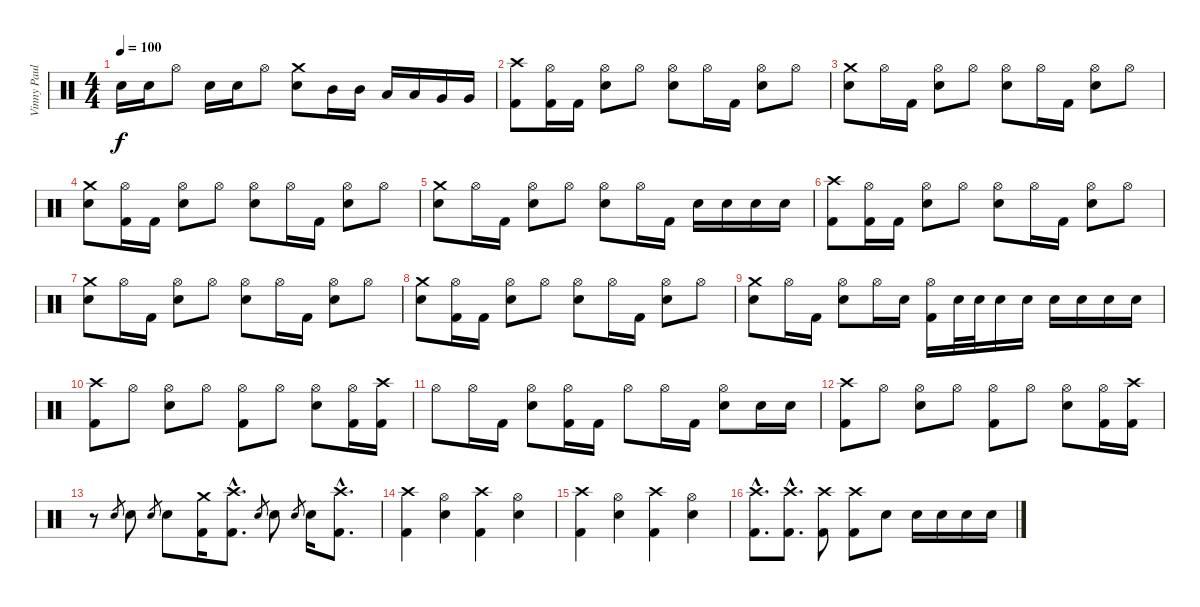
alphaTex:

\track ("Vinny Paul" "Vinny Paul") {instrument percussion}
\staff {score}
\articulation defaults
\ts (4 4)
\tempo 100
\clef neutral
\ks c "Snare (hit) 2".16{dy f} "Snare (hit) 2".16 "Hi-Hat (open)".8 "Snare (hit) 2".16 "Snare (hit) 2".16 "Hi-Hat (open)".8
("Crash medium (hit)" "Snare (hit) 2").8 "Mid Tom (hit)".16 "Mid Tom (hit)".16 "Low Tom (hit)".16 "Low Tom (hit)".16 "Very Low Tom (hit)".16 "Very Low Tom (hit)".16 |
("Crash high (hit)" "Kick (hit) 2").8 ("Hi-Hat (open)" "Kick (hit) 2").16 "Kick (hit) 2".16 ("Hi-Hat (open)" "Snare (hit) 2").8 "Hi-Hat (open)".8 ("Hi-Hat (open)" "Snare (hit) 2").8 "Hi-Hat (open)".16 "Kick (hit) 2".16 ("Hi-Hat (open)" "Snare (hit) 2").8 "Hi-Hat (open)".8 |
("Crash medium (hit)" "Snare (hit) 2").8 "Hi-Hat (open)".16 "Kick (hit) 2".16 ("Hi-Hat (open)" "Snare (hit) 2").8 "Hi-Hat (open)".8 ("Hi-Hat (open)" "Snare (hit) 2").8 "Hi-Hat (open)".16 "Kick (hit) 2".16 ("Hi-Hat (open)" "Snare (hit) 2").8 "Hi-Hat (open)".8 |
("Crash medium (hit)" "Snare (hit) 2").8 ("Hi-Hat (open)" "Kick (hit) 2").16 "Kick (hit) 2".16 ("Hi-Hat (open)" "Snare (hit) 2").8 "Hi-Hat (open)".8 ("Hi-Hat (open)" "Snare (hit) 2").8 "Hi-Hat (open)".16 "Kick (hit) 2".16 ("Hi-Hat (open)" "Snare (hit) 2").8 "Hi-Hat (open)".8 |
("Crash medium (hit)" "Snare (hit) 2").8 "Hi-Hat (open)".16 "Kick (hit) 2".16 ("Hi-Hat (open)" "Snare (hit) 2").8 "Hi-Hat (open)".8 ("Hi-Hat (open)" "Snare (hit) 2").8 "Hi-Hat (open)".16 "Kick (hit) 2".16 "Snare (hit) 2".16 "Snare (hit) 2".16 "Snare (hit) 2".16 "Snare (hit) 2".16 |
("Crash high (hit)" "Kick (hit) 2").8 ("Hi-Hat (open)" "Kick (hit) 2").16 "Kick (hit) 2".16 ("Hi-Hat (open)" "Snare (hit) 2").8 "Hi-Hat (open)".8 ("Hi-Hat (open)" "Snare (hit) 2").8 "Hi-Hat (open)".16 "Kick (hit) 2".16 ("Hi-Hat (open)" "Snare (hit) 2").8 "Hi-Hat (open)".8 |
("Crash medium (hit)" "Snare (hit) 2").8 "Hi-Hat (open)".16 "Kick (hit) 2".16 ("Hi-Hat (open)" "Snare (hit) 2").8 "Hi-Hat (open)".8 ("Hi-Hat (open)" "Snare (hit) 2").8 "Hi-Hat (open)".16 "Kick (hit) 2".16 ("Hi-Hat (open)" "Snare (hit) 2").8 "Hi-Hat (open)".8 |
("Crash medium (hit)" "Snare (hit) 2").8 ("Hi-Hat (open)" "Kick (hit) 2").16 "Kick (hit) 2".16 ("Hi-Hat (open)" "Snare (hit) 2").8 "Hi-Hat (open)".8 ("Hi-Hat (open)" "Snare (hit) 2").8 "Hi-Hat (open)".16 "Kick (hit) 2".16 ("Hi-Hat (open)" "Snare (hit) 2").8 "Hi-Hat (open)".8 |
("Crash medium (hit)" "Snare (hit) 2").8 "Hi-Hat (open)".16 "Kick (hit) 2".16 ("Hi-Hat (open)" "Snare (hit) 2").8 "Hi-Hat (open)".16 "Snare (hit) 2".16 ("Hi-Hat (open)" "Kick (hit) 2").16 "Snare (hit) 2".32 "Snare (hit) 2".32 "Snare (hit) 2".16 "Snare (hit) 2".16 "Snare (hit) 2".16 "Snare (hit) 2".16 "Snare (hit) 2".16 "Snare (hit) 2".16 |
("Crash high (hit)" "Kick (hit) 2").8 "Hi-Hat (open)".8 ("Hi-Hat (open)" "Snare (hit) 2").8 "Hi-Hat (open)".8 ("Hi-Hat (open)" "Kick (hit) 2").8 "Hi-Hat (open)".8 ("Hi-Hat (open)" "Snare (hit) 2").8 ("Hi-Hat (open)" "Kick (hit) 2").16 ("Crash high (hit)" "Kick (hit) 2").16 |
"Hi-Hat (open)".8 "Hi-Hat (open)".16 "Kick (hit) 2".16 ("Hi-Hat (open)" "Snare (hit) 2").8 ("Hi-Hat (open)" "Kick (hit) 2").16 "Kick (hit) 2".16 "Hi-Hat (open)".8 "Hi-Hat (open)".16 "Kick (hit) 2".16 ("Hi-Hat (open)" "Snare (hit) 2").8 "Snare (hit) 2".16 "Snare (hit) 2".16 |
("Crash high (hit)" "Kick (hit) 2").8 "Hi-Hat (open)".8 ("Hi-Hat (open)" "Snare (hit) 2").8 "Hi-Hat (open)".8 ("Hi-Hat (open)" "Kick (hit) 2").8 "Hi-Hat (open)".8 ("Hi-Hat (open)" "Snare (hit) 2").8 ("Hi-Hat (open)" "Kick (hit) 2").16 ("Crash high (hit)" "Kick (hit) 2").16 |
r.8 "Snare (hit) 2".8{gr} "Snare (hit) 2".8 "Snare (hit) 2".8{gr} "Snare (hit) 2".8 ("Crash medium (hit)" "Kick (hit) 2").16 ("Crash high (hit)"{hac} "Kick (hit) 2"{hac}).8{d} "Snare (hit) 2".8{gr} "Snare (hit) 2".8 "Snare (hit) 2".8{gr} "Snare (hit) 2".16 ("Crash high (hit)"{hac} "Kick (hit) 2"{hac}).8{d} |
("Crash high (hit)" "Kick (hit) 2").4 ("Hi-Hat (open)" "Snare (hit) 2").4 ("Crash high (hit)" "Kick (hit) 2").4 ("Hi-Hat (open)" "Snare (hit) 2").4 |
("Crash high (hit)" "Kick (hit) 2").4 ("Hi-Hat (open)" "Snare (hit) 2").4 ("Crash high (hit)" "Kick (hit) 2").4 ("Hi-Hat (open)" "Snare (hit) 2").4 |
("Crash high (hit)"{hac} "Kick (hit) 2"{hac}).8{d} ("Crash high (hit)"{hac} "Kick (hit) 2"{hac}).8{d} ("Crash high (hit)" "Kick (hit) 2").8 ("Crash high (hit)" "Kick (hit) 2").8 "Snare (hit) 2".8 "Snare (hit) 2".16 "Snare (hit) 2".16 "Snare (hit) 2".16 "Snare (hit) 2".16
